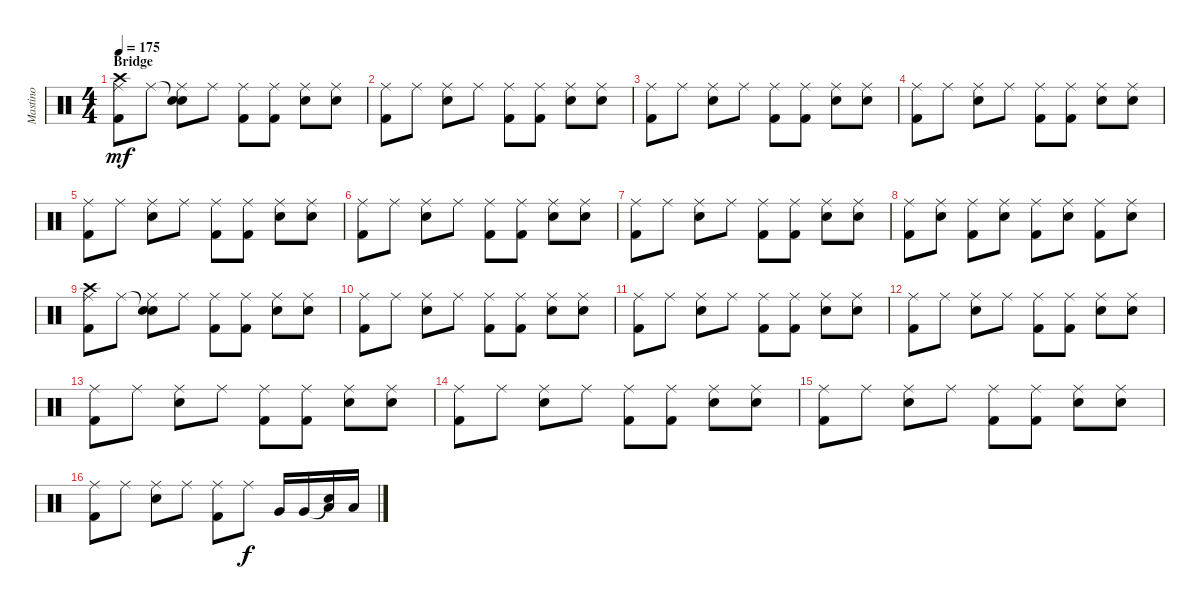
\track ("Mastino" "Mastino") {instrument percussion}
\staff {score}
\articulation defaults
\ts (4 4)
\section ("" "Bridge")
\tempo 175
\clef neutral
\ks c
("Crash high (hit)" "Ride (middle)" "Kick (hit) 2").8{dy mf} "Ride (middle)".8 ("Snare (hit)"{t} "Ride (middle)" "Electric Snare (hit)").8 "Ride (middle)".8 ("Ride (middle)" "Kick (hit) 2").8 ("Ride (middle)" "Kick (hit) 2").8 ("Ride (middle)" "Electric Snare (hit)").8 ("Ride (middle)" "Electric Snare (hit)").8 |
("Ride (middle)" "Kick (hit) 2").8 "Ride (middle)".8 ("Ride (middle)" "Electric Snare (hit)").8 "Ride (middle)".8 ("Ride (middle)" "Kick (hit) 2").8 ("Ride (middle)" "Kick (hit) 2").8 ("Ride (middle)" "Electric Snare (hit)").8 ("Ride (middle)" "Electric Snare (hit)").8 |
("Ride (middle)" "Kick (hit) 2").8 "Ride (middle)".8 ("Ride (middle)" "Electric Snare (hit)").8 "Ride (middle)".8 ("Ride (middle)" "Kick (hit) 2").8 ("Ride (middle)" "Kick (hit) 2").8 ("Ride (middle)" "Electric Snare (hit)").8 ("Ride (middle)" "Electric Snare (hit)").8 |
("Ride (middle)" "Kick (hit) 2").8 "Ride (middle)".8 ("Ride (middle)" "Electric Snare (hit)").8 "Ride (middle)".8 ("Ride (middle)" "Kick (hit) 2").8 ("Ride (middle)" "Kick (hit) 2").8 ("Ride (middle)" "Electric Snare (hit)").8 ("Ride (middle)" "Electric Snare (hit)").8 |
("Ride (middle)" "Kick (hit) 2").8 "Ride (middle)".8 ("Ride (middle)" "Electric Snare (hit)").8 "Ride (middle)".8 ("Ride (middle)" "Kick (hit) 2").8 ("Ride (middle)" "Kick (hit) 2").8 ("Ride (middle)" "Electric Snare (hit)").8 ("Ride (middle)" "Electric Snare (hit)").8 |
("Ride (middle)" "Kick (hit) 2").8 "Ride (middle)".8 ("Ride (middle)" "Electric Snare (hit)").8 "Ride (middle)".8 ("Ride (middle)" "Kick (hit) 2").8 ("Ride (middle)" "Kick (hit) 2").8 ("Ride (middle)" "Electric Snare (hit)").8 ("Ride (middle)" "Electric Snare (hit)").8 |
("Ride (middle)" "Kick (hit) 2").8 "Ride (middle)".8 ("Ride (middle)" "Electric Snare (hit)").8 "Ride (middle)".8 ("Ride (middle)" "Kick (hit) 2").8 ("Ride (middle)" "Kick (hit) 2").8 ("Ride (middle)" "Electric Snare (hit)").8 ("Ride (middle)" "Electric Snare (hit)").8 |
("Ride (middle)" "Kick (hit) 2").8 ("Ride (middle)" "Electric Snare (hit)").8 ("Ride (middle)" "Kick (hit) 2").8 ("Ride (middle)" "Electric Snare (hit)").8 ("Ride (middle)" "Kick (hit) 2").8 ("Ride (middle)" "Electric Snare (hit)").8 ("Ride (middle)" "Kick (hit) 2").8 ("Ride (middle)" "Electric Snare (hit)").8 |
("Crash high (hit)" "Ride (middle)" "Kick (hit) 2").8 "Ride (middle)".8 ("Snare (hit)"{t} "Ride (middle)" "Electric Snare (hit)").8 "Ride (middle)".8 ("Ride (middle)" "Kick (hit) 2").8 ("Ride (middle)" "Kick (hit) 2").8 ("Ride (middle)" "Electric Snare (hit)").8 ("Ride (middle)" "Electric Snare (hit)").8 |
("Ride (middle)" "Kick (hit) 2").8 "Ride (middle)".8 ("Ride (middle)" "Electric Snare (hit)").8 "Ride (middle)".8 ("Ride (middle)" "Kick (hit) 2").8 ("Ride (middle)" "Kick (hit) 2").8 ("Ride (middle)" "Electric Snare (hit)").8 ("Ride (middle)" "Electric Snare (hit)").8 |
("Ride (middle)" "Kick (hit) 2").8 "Ride (middle)".8 ("Ride (middle)" "Electric Snare (hit)").8 "Ride (middle)".8 ("Ride (middle)" "Kick (hit) 2").8 ("Ride (middle)" "Kick (hit) 2").8 ("Ride (middle)" "Electric Snare (hit)").8 ("Ride (middle)" "Electric Snare (hit)").8 |
("Ride (middle)" "Kick (hit) 2").8 "Ride (middle)".8 ("Ride (middle)" "Electric Snare (hit)").8 "Ride (middle)".8 ("Ride (middle)" "Kick (hit) 2").8 ("Ride (middle)" "Kick (hit) 2").8 ("Ride (middle)" "Electric Snare (hit)").8 ("Ride (middle)" "Electric Snare (hit)").8 |
("Ride (middle)" "Kick (hit) 2").8 "Ride (middle)".8 ("Ride (middle)" "Electric Snare (hit)").8 "Ride (middle)".8 ("Ride (middle)" "Kick (hit) 2").8 ("Ride (middle)" "Kick (hit) 2").8 ("Ride (middle)" "Electric Snare (hit)").8 ("Ride (middle)" "Electric Snare (hit)").8 |
("Ride (middle)" "Kick (hit) 2").8 "Ride (middle)".8 ("Ride (middle)" "Electric Snare (hit)").8 "Ride (middle)".8 ("Ride (middle)" "Kick (hit) 2").8 ("Ride (middle)" "Kick (hit) 2").8 ("Ride (middle)" "Electric Snare (hit)").8 ("Ride (middle)" "Electric Snare (hit)").8 |
("Ride (middle)" "Kick (hit) 2").8 "Ride (middle)".8 ("Ride (middle)" "Electric Snare (hit)").8 "Ride (middle)".8 ("Ride (middle)" "Kick (hit) 2").8 ("Ride (middle)" "Kick (hit) 2").8 ("Ride (middle)" "Electric Snare (hit)").8 ("Ride (middle)" "Electric Snare (hit)").8 |
("Ride (middle)" "Kick (hit) 2").8 "Ride (middle)".8 ("Ride (middle)" "Electric Snare (hit)").8 "Ride (middle)".8 ("Ride (middle)" "Kick (hit) 2").8 "Ride (middle)".8{dy f} "Very Low Tom (hit)".16 "Very Low Tom (hit)".16 ("Snare (hit)"{t} "Low Tom (hit)").16 "Low Tom (hit)".16
